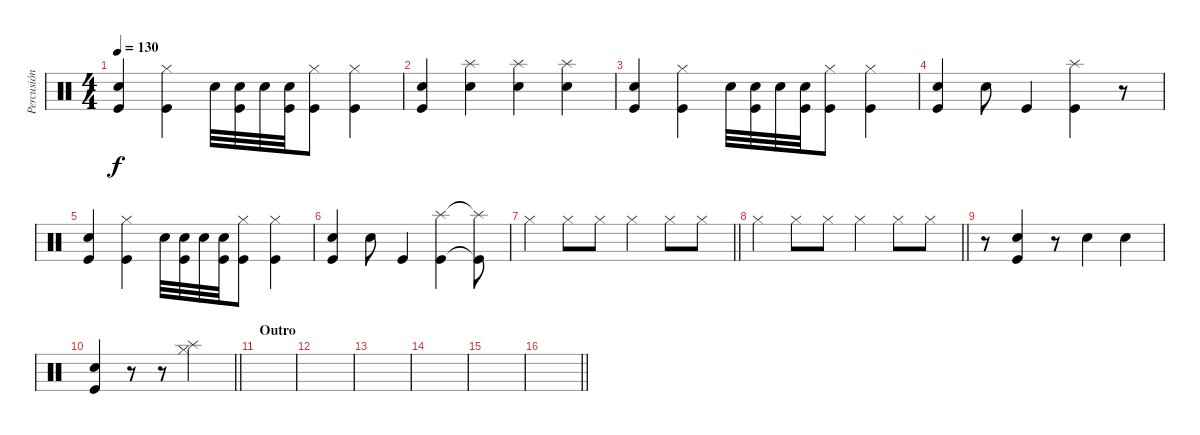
\track ("Percusión" "Percusión") {instrument percussion}
\staff {score}
\articulation defaults
\ts (4 4)
\tempo 130
\clef neutral
\ks c
("Snare (hit) 2" "Kick (hit)").4{dy f} ("Hi-Hat (closed)" "Kick (hit)").4 "Snare (hit) 2".32 ("Snare (hit) 2" "Kick (hit)").32 "Snare (hit) 2".32 ("Snare (hit) 2" "Kick (hit)").32 ("Hi-Hat (closed)" "Kick (hit)").8 ("Hi-Hat (closed)" "Kick (hit)").4 |
("Snare (hit) 2" "Kick (hit)").4 ("Splash (hit)" "Snare (hit) 2").4 ("Splash (hit)" "Snare (hit) 2").4 ("Splash (hit)" "Snare (hit) 2").4 |
("Snare (hit) 2" "Kick (hit)").4 ("Hi-Hat (closed)" "Kick (hit)").4 "Snare (hit) 2".32 ("Snare (hit) 2" "Kick (hit)").32 "Snare (hit) 2".32 ("Snare (hit) 2" "Kick (hit)").32 ("Hi-Hat (closed)" "Kick (hit)").8 ("Hi-Hat (closed)" "Kick (hit)").4 |
("Snare (hit) 2" "Kick (hit)").4 "Snare (hit) 2".8 "Kick (hit)".4 ("Splash (hit)" "Kick (hit)").4 r.8 |
("Snare (hit) 2" "Kick (hit)").4 ("Hi-Hat (closed)" "Kick (hit)").4 "Snare (hit) 2".32 ("Snare (hit) 2" "Kick (hit)").32 "Snare (hit) 2".32 ("Snare (hit) 2" "Kick (hit)").32 ("Hi-Hat (closed)" "Kick (hit)").8 ("Hi-Hat (closed)" "Kick (hit)").4 |
("Snare (hit) 2" "Kick (hit)").4 "Snare (hit) 2".8 "Kick (hit)".4 ("Splash (hit)" "Kick (hit)").4 ("Splash (hit)"{t} "Kick (hit)"{t}).8 |
\barLineRight lightlight "Hi-Hat (closed)".4 "Hi-Hat (closed)".8 "Hi-Hat (closed)".8 "Hi-Hat (closed)".4 "Hi-Hat (closed)".8 "Hi-Hat (closed)".8
|
\barLineRight lightlight "Hi-Hat (closed)".4 "Hi-Hat (closed)".8 "Hi-Hat (closed)".8 "Hi-Hat (closed)".4 "Hi-Hat (closed)".8 "Hi-Hat (closed)".8
|
r.8 ("Snare (hit) 2" "Kick (hit)").4 r.8 "Snare (hit) 2".4 "Snare (hit) 2".4 |
\barLineRight lightlight
("Snare (hit) 2" "Kick (hit)").4 r.8 r.8 ("Splash (hit)" "Hi-Hat (closed)").2 |
\section ("" "Outro")
|
|
|
|
|
\barLineRight lightlight
